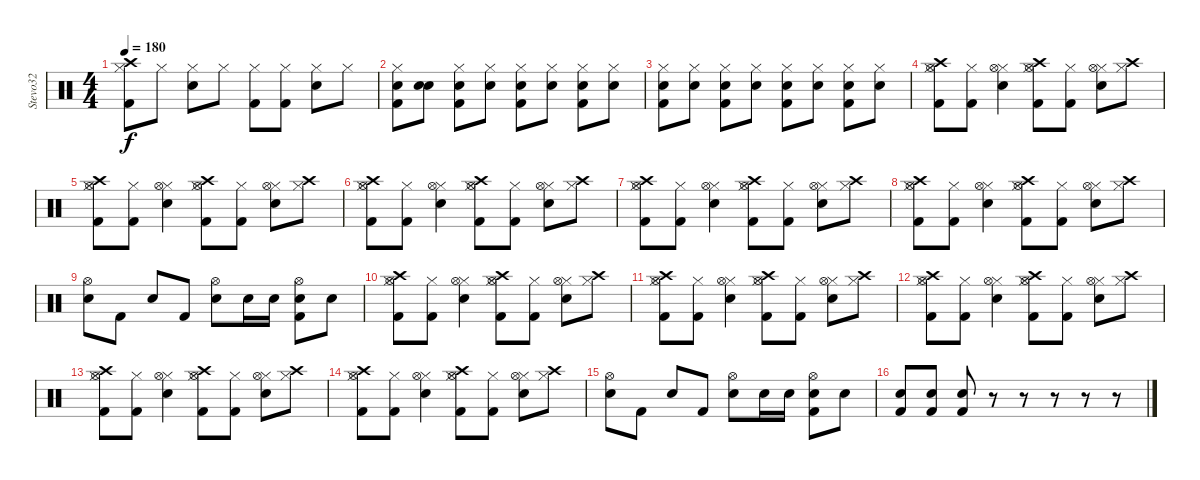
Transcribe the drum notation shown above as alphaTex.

\track ("Stevo32" "Stevo32") {instrument percussion}
\staff {score}
\articulation defaults
\ts (4 4)
\tempo 180
\clef neutral
\ks c
("Hi-Hat (closed)" "Kick (hit) 2" "Crash high (hit)").8{dy f} "Hi-Hat (closed)".8 ("Hi-Hat (closed)" "Electric Snare (hit)").8 "Hi-Hat (closed)".8 ("Hi-Hat (closed)" "Kick (hit) 2").8 ("Hi-Hat (closed)" "Kick (hit) 2").8 ("Hi-Hat (closed)" "Electric Snare (hit)").8 "Hi-Hat (closed)".8 |
("Hi-Hat (closed)" "Electric Snare (hit)" "Kick (hit) 2").8 ("Snare (hit)" "Electric Snare (hit)").8 ("Hi-Hat (closed)" "Electric Snare (hit)" "Kick (hit) 2").8 ("Hi-Hat (closed)" "Electric Snare (hit)").8 ("Hi-Hat (closed)" "Electric Snare (hit)" "Kick (hit) 2").8 ("Hi-Hat (closed)" "Electric Snare (hit)").8 ("Hi-Hat (closed)" "Electric Snare (hit)" "Kick (hit) 2").8 ("Hi-Hat (closed)" "Electric Snare (hit)").8 |
("Hi-Hat (closed)" "Electric Snare (hit)" "Kick (hit) 2").8 ("Hi-Hat (closed)" "Electric Snare (hit)").8 ("Hi-Hat (closed)" "Electric Snare (hit)" "Kick (hit) 2").8 ("Hi-Hat (closed)" "Electric Snare (hit)").8 ("Hi-Hat (closed)" "Electric Snare (hit)" "Kick (hit) 2").8 ("Hi-Hat (closed)" "Electric Snare (hit)").8 ("Hi-Hat (closed)" "Electric Snare (hit)" "Kick (hit) 2").8 ("Hi-Hat (closed)" "Electric Snare (hit)").8 |
("Hi-Hat (closed)" "Kick (hit) 2" "Hi-Hat (open)" "Crash high (hit)").8 ("Hi-Hat (closed)" "Kick (hit) 2").8 ("Hi-Hat (closed)" "Electric Snare (hit)" "Hi-Hat (open)").4 ("Hi-Hat (closed)" "Kick (hit) 2" "Hi-Hat (open)" "Crash high (hit)").8 ("Hi-Hat (closed)" "Kick (hit) 2").8 ("Hi-Hat (closed)" "Electric Snare (hit)" "Hi-Hat (open)").8 ("Hi-Hat (closed)" "Crash high (hit)").8 |
("Hi-Hat (closed)" "Kick (hit) 2" "Hi-Hat (open)" "Crash high (hit)").8 ("Hi-Hat (closed)" "Kick (hit) 2").8 ("Hi-Hat (closed)" "Electric Snare (hit)" "Hi-Hat (open)").4 ("Hi-Hat (closed)" "Kick (hit) 2" "Hi-Hat (open)" "Crash high (hit)").8 ("Hi-Hat (closed)" "Kick (hit) 2").8 ("Hi-Hat (closed)" "Electric Snare (hit)" "Hi-Hat (open)").8 ("Hi-Hat (closed)" "Crash high (hit)").8 |
("Hi-Hat (closed)" "Kick (hit) 2" "Hi-Hat (open)" "Crash high (hit)").8 ("Hi-Hat (closed)" "Kick (hit) 2").8 ("Hi-Hat (closed)" "Electric Snare (hit)" "Hi-Hat (open)").4 ("Hi-Hat (closed)" "Kick (hit) 2" "Hi-Hat (open)" "Crash high (hit)").8 ("Hi-Hat (closed)" "Kick (hit) 2").8 ("Hi-Hat (closed)" "Electric Snare (hit)" "Hi-Hat (open)").8 ("Hi-Hat (closed)" "Crash high (hit)").8 |
("Hi-Hat (closed)" "Kick (hit) 2" "Hi-Hat (open)" "Crash high (hit)").8 ("Hi-Hat (closed)" "Kick (hit) 2").8 ("Hi-Hat (closed)" "Electric Snare (hit)" "Hi-Hat (open)").4 ("Hi-Hat (closed)" "Kick (hit) 2" "Hi-Hat (open)" "Crash high (hit)").8 ("Hi-Hat (closed)" "Kick (hit) 2").8 ("Hi-Hat (closed)" "Electric Snare (hit)" "Hi-Hat (open)").8 ("Hi-Hat (closed)" "Crash high (hit)").8 |
("Hi-Hat (closed)" "Kick (hit) 2" "Hi-Hat (open)" "Crash high (hit)").8 ("Hi-Hat (closed)" "Kick (hit) 2").8 ("Hi-Hat (closed)" "Electric Snare (hit)" "Hi-Hat (open)").4 ("Hi-Hat (closed)" "Kick (hit) 2" "Hi-Hat (open)" "Crash high (hit)").8 ("Hi-Hat (closed)" "Kick (hit) 2").8 ("Hi-Hat (closed)" "Electric Snare (hit)" "Hi-Hat (open)").8 ("Hi-Hat (closed)" "Crash high (hit)").8 |
("Electric Snare (hit)" "Hi-Hat (open)").8 "Kick (hit) 2".8 "Electric Snare (hit)".8 "Kick (hit) 2".8 ("Electric Snare (hit)" "Hi-Hat (open)").8 "Electric Snare (hit)".16 "Electric Snare (hit)".16 ("Electric Snare (hit)" "Kick (hit) 2" "Hi-Hat (open)").8 "Electric Snare (hit)".8 |
("Hi-Hat (closed)" "Kick (hit) 2" "Hi-Hat (open)" "Crash high (hit)").8 ("Hi-Hat (closed)" "Kick (hit) 2").8 ("Hi-Hat (closed)" "Electric Snare (hit)" "Hi-Hat (open)").4 ("Hi-Hat (closed)" "Kick (hit) 2" "Hi-Hat (open)" "Crash high (hit)").8 ("Hi-Hat (closed)" "Kick (hit) 2").8 ("Hi-Hat (closed)" "Electric Snare (hit)" "Hi-Hat (open)").8 ("Hi-Hat (closed)" "Crash high (hit)").8 |
("Hi-Hat (closed)" "Kick (hit) 2" "Hi-Hat (open)" "Crash high (hit)").8 ("Hi-Hat (closed)" "Kick (hit) 2").8 ("Hi-Hat (closed)" "Electric Snare (hit)" "Hi-Hat (open)").4 ("Hi-Hat (closed)" "Kick (hit) 2" "Hi-Hat (open)" "Crash high (hit)").8 ("Hi-Hat (closed)" "Kick (hit) 2").8 ("Hi-Hat (closed)" "Electric Snare (hit)" "Hi-Hat (open)").8 ("Hi-Hat (closed)" "Crash high (hit)").8 |
("Hi-Hat (closed)" "Kick (hit) 2" "Hi-Hat (open)" "Crash high (hit)").8 ("Hi-Hat (closed)" "Kick (hit) 2").8 ("Hi-Hat (closed)" "Electric Snare (hit)" "Hi-Hat (open)").4 ("Hi-Hat (closed)" "Kick (hit) 2" "Hi-Hat (open)" "Crash high (hit)").8 ("Hi-Hat (closed)" "Kick (hit) 2").8 ("Hi-Hat (closed)" "Electric Snare (hit)" "Hi-Hat (open)").8 ("Hi-Hat (closed)" "Crash high (hit)").8 |
("Hi-Hat (closed)" "Kick (hit) 2" "Hi-Hat (open)" "Crash high (hit)").8 ("Hi-Hat (closed)" "Kick (hit) 2").8 ("Hi-Hat (closed)" "Electric Snare (hit)" "Hi-Hat (open)").4 ("Hi-Hat (closed)" "Kick (hit) 2" "Hi-Hat (open)" "Crash high (hit)").8 ("Hi-Hat (closed)" "Kick (hit) 2").8 ("Hi-Hat (closed)" "Electric Snare (hit)" "Hi-Hat (open)").8 ("Hi-Hat (closed)" "Crash high (hit)").8 |
("Hi-Hat (closed)" "Kick (hit) 2" "Hi-Hat (open)" "Crash high (hit)").8 ("Hi-Hat (closed)" "Kick (hit) 2").8 ("Hi-Hat (closed)" "Electric Snare (hit)" "Hi-Hat (open)").4 ("Hi-Hat (closed)" "Kick (hit) 2" "Hi-Hat (open)" "Crash high (hit)").8 ("Hi-Hat (closed)" "Kick (hit) 2").8 ("Hi-Hat (closed)" "Electric Snare (hit)" "Hi-Hat (open)").8 ("Hi-Hat (closed)" "Crash high (hit)").8 |
("Electric Snare (hit)" "Hi-Hat (open)").8 "Kick (hit) 2".8 "Electric Snare (hit)".8 "Kick (hit) 2".8 ("Electric Snare (hit)" "Hi-Hat (open)").8 "Electric Snare (hit)".16 "Electric Snare (hit)".16 ("Electric Snare (hit)" "Kick (hit) 2" "Hi-Hat (open)").8 "Electric Snare (hit)".8 |
("Electric Snare (hit)" "Kick (hit) 2").8 ("Electric Snare (hit)" "Kick (hit) 2").8 ("Electric Snare (hit)" "Kick (hit) 2").8 r.8 r.8 r.8 r.8 r.8
